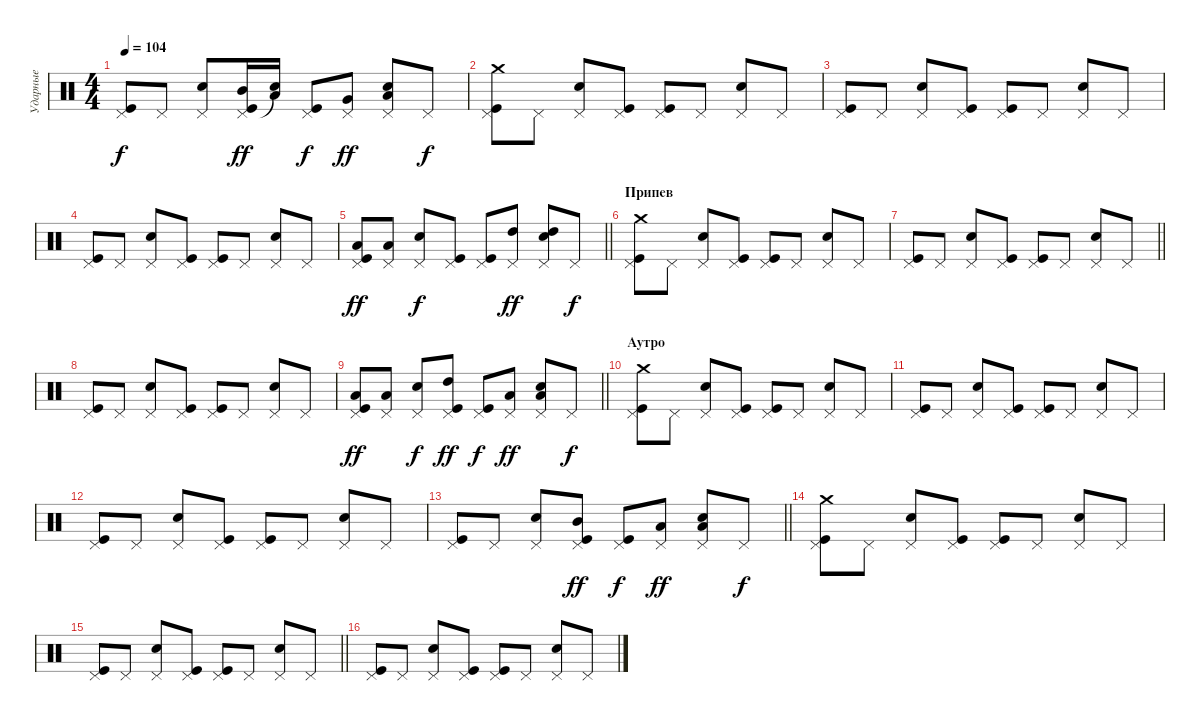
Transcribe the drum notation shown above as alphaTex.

\track ("Ударные" "Ударные") {instrument percussion}
\staff {score}
\articulation defaults
\ts (4 4)
\tempo 104
\clef neutral
\ks c
("Pedal Hi-Hat (hit)" "Kick (hit)").8{dy f} "Pedal Hi-Hat (hit)".8 ("Pedal Hi-Hat (hit)" "Snare (hit) 2").8 ("Pedal Hi-Hat (hit)" "Kick (hit)" "Mid Tom (hit)").16{dy ff} ("Snare (hit)"{t} "Low Tom (hit)").16 ("Pedal Hi-Hat (hit)" "Kick (hit)").8{dy f} ("Pedal Hi-Hat (hit)" "Very Low Tom (hit)").8{dy ff} ("Pedal Hi-Hat (hit)" "Snare (hit) 2" "Low Floor Tom (hit)").8 "Pedal Hi-Hat (hit)".8{dy f} |
("Pedal Hi-Hat (hit)" "Kick (hit)" "Crash medium (hit)").8 "Pedal Hi-Hat (hit)".8 ("Pedal Hi-Hat (hit)" "Snare (hit) 2").8 ("Pedal Hi-Hat (hit)" "Kick (hit)").8 ("Pedal Hi-Hat (hit)" "Kick (hit)").8 "Pedal Hi-Hat (hit)".8 ("Pedal Hi-Hat (hit)" "Snare (hit) 2").8 "Pedal Hi-Hat (hit)".8 |
("Pedal Hi-Hat (hit)" "Kick (hit)").8 "Pedal Hi-Hat (hit)".8 ("Pedal Hi-Hat (hit)" "Snare (hit) 2").8 ("Pedal Hi-Hat (hit)" "Kick (hit)").8 ("Pedal Hi-Hat (hit)" "Kick (hit)").8 "Pedal Hi-Hat (hit)".8 ("Pedal Hi-Hat (hit)" "Snare (hit) 2").8 "Pedal Hi-Hat (hit)".8 |
("Pedal Hi-Hat (hit)" "Kick (hit)").8 "Pedal Hi-Hat (hit)".8 ("Pedal Hi-Hat (hit)" "Snare (hit) 2").8 ("Pedal Hi-Hat (hit)" "Kick (hit)").8 ("Pedal Hi-Hat (hit)" "Kick (hit)").8 "Pedal Hi-Hat (hit)".8 ("Pedal Hi-Hat (hit)" "Snare (hit) 2").8 "Pedal Hi-Hat (hit)".8 |
\barLineRight lightlight
("Pedal Hi-Hat (hit)" "Kick (hit)" "Low Floor Tom (hit)").8{dy ff} ("Pedal Hi-Hat (hit)" "Low Floor Tom (hit)").8 ("Pedal Hi-Hat (hit)" "Snare (hit) 2").8{dy f} ("Pedal Hi-Hat (hit)" "Kick (hit)").8 ("Pedal Hi-Hat (hit)" "Kick (hit)").8 ("Pedal Hi-Hat (hit)" "High Tom (hit)").8{dy ff} ("Pedal Hi-Hat (hit)" "Snare (hit) 2" "High Tom (hit)").8 "Pedal Hi-Hat (hit)".8{dy f} |
\section ("" "Припев")
("Pedal Hi-Hat (hit)" "Kick (hit)" "Crash medium (hit)").8 "Pedal Hi-Hat (hit)".8 ("Pedal Hi-Hat (hit)" "Snare (hit) 2").8 ("Pedal Hi-Hat (hit)" "Kick (hit)").8 ("Pedal Hi-Hat (hit)" "Kick (hit)").8 "Pedal Hi-Hat (hit)".8 ("Pedal Hi-Hat (hit)" "Snare (hit) 2").8 "Pedal Hi-Hat (hit)".8 |
\barLineRight lightlight
("Pedal Hi-Hat (hit)" "Kick (hit)").8 "Pedal Hi-Hat (hit)".8 ("Pedal Hi-Hat (hit)" "Snare (hit) 2").8 ("Pedal Hi-Hat (hit)" "Kick (hit)").8 ("Pedal Hi-Hat (hit)" "Kick (hit)").8 "Pedal Hi-Hat (hit)".8 ("Pedal Hi-Hat (hit)" "Snare (hit) 2").8 "Pedal Hi-Hat (hit)".8 |
("Pedal Hi-Hat (hit)" "Kick (hit)").8 "Pedal Hi-Hat (hit)".8 ("Pedal Hi-Hat (hit)" "Snare (hit) 2").8 ("Pedal Hi-Hat (hit)" "Kick (hit)").8 ("Pedal Hi-Hat (hit)" "Kick (hit)").8 "Pedal Hi-Hat (hit)".8 ("Pedal Hi-Hat (hit)" "Snare (hit) 2").8 "Pedal Hi-Hat (hit)".8 |
\barLineRight lightlight
("Pedal Hi-Hat (hit)" "Kick (hit)" "Low Floor Tom (hit)").8{dy ff} ("Pedal Hi-Hat (hit)" "Low Floor Tom (hit)").8 ("Pedal Hi-Hat (hit)" "Snare (hit) 2").8{dy f} ("Pedal Hi-Hat (hit)" "Kick (hit)" "High Tom (hit)").8{dy ff} ("Pedal Hi-Hat (hit)" "Kick (hit)").8{dy f} ("Pedal Hi-Hat (hit)" "Low Tom (hit)").8{dy ff} ("Pedal Hi-Hat (hit)" "Snare (hit) 2" "Low Tom (hit)").8 "Pedal Hi-Hat (hit)".8{dy f} |
\section ("" "Аутро")
("Pedal Hi-Hat (hit)" "Kick (hit)" "Crash medium (hit)").8 "Pedal Hi-Hat (hit)".8 ("Pedal Hi-Hat (hit)" "Snare (hit) 2").8 ("Pedal Hi-Hat (hit)" "Kick (hit)").8 ("Pedal Hi-Hat (hit)" "Kick (hit)").8 "Pedal Hi-Hat (hit)".8 ("Pedal Hi-Hat (hit)" "Snare (hit) 2").8 "Pedal Hi-Hat (hit)".8 |
("Pedal Hi-Hat (hit)" "Kick (hit)").8 "Pedal Hi-Hat (hit)".8 ("Pedal Hi-Hat (hit)" "Snare (hit) 2").8 ("Pedal Hi-Hat (hit)" "Kick (hit)").8 ("Pedal Hi-Hat (hit)" "Kick (hit)").8 "Pedal Hi-Hat (hit)".8 ("Pedal Hi-Hat (hit)" "Snare (hit) 2").8 "Pedal Hi-Hat (hit)".8 |
("Pedal Hi-Hat (hit)" "Kick (hit)").8 "Pedal Hi-Hat (hit)".8 ("Pedal Hi-Hat (hit)" "Snare (hit) 2").8 ("Pedal Hi-Hat (hit)" "Kick (hit)").8 ("Pedal Hi-Hat (hit)" "Kick (hit)").8 "Pedal Hi-Hat (hit)".8 ("Pedal Hi-Hat (hit)" "Snare (hit) 2").8 "Pedal Hi-Hat (hit)".8 |
\barLineRight lightlight
("Pedal Hi-Hat (hit)" "Kick (hit)").8 "Pedal Hi-Hat (hit)".8 ("Pedal Hi-Hat (hit)" "Snare (hit) 2").8 ("Pedal Hi-Hat (hit)" "Kick (hit)" "Mid Tom (hit)").8{dy ff} ("Pedal Hi-Hat (hit)" "Kick (hit)").8{dy f} ("Pedal Hi-Hat (hit)" "Low Floor Tom (hit)").8{dy ff} ("Pedal Hi-Hat (hit)" "Snare (hit) 2" "Low Floor Tom (hit)").8 "Pedal Hi-Hat (hit)".8{dy f} |
("Pedal Hi-Hat (hit)" "Kick (hit)" "Crash medium (hit)").8 "Pedal Hi-Hat (hit)".8 ("Pedal Hi-Hat (hit)" "Snare (hit) 2").8 ("Pedal Hi-Hat (hit)" "Kick (hit)").8 ("Pedal Hi-Hat (hit)" "Kick (hit)").8 "Pedal Hi-Hat (hit)".8 ("Pedal Hi-Hat (hit)" "Snare (hit) 2").8 "Pedal Hi-Hat (hit)".8 |
\barLineRight lightlight
("Pedal Hi-Hat (hit)" "Kick (hit)").8 "Pedal Hi-Hat (hit)".8 ("Pedal Hi-Hat (hit)" "Snare (hit) 2").8 ("Pedal Hi-Hat (hit)" "Kick (hit)").8 ("Pedal Hi-Hat (hit)" "Kick (hit)").8 "Pedal Hi-Hat (hit)".8 ("Pedal Hi-Hat (hit)" "Snare (hit) 2").8 "Pedal Hi-Hat (hit)".8 |
("Pedal Hi-Hat (hit)" "Kick (hit)").8 "Pedal Hi-Hat (hit)".8 ("Pedal Hi-Hat (hit)" "Snare (hit) 2").8 ("Pedal Hi-Hat (hit)" "Kick (hit)").8 ("Pedal Hi-Hat (hit)" "Kick (hit)").8 "Pedal Hi-Hat (hit)".8 ("Pedal Hi-Hat (hit)" "Snare (hit) 2").8 "Pedal Hi-Hat (hit)".8
